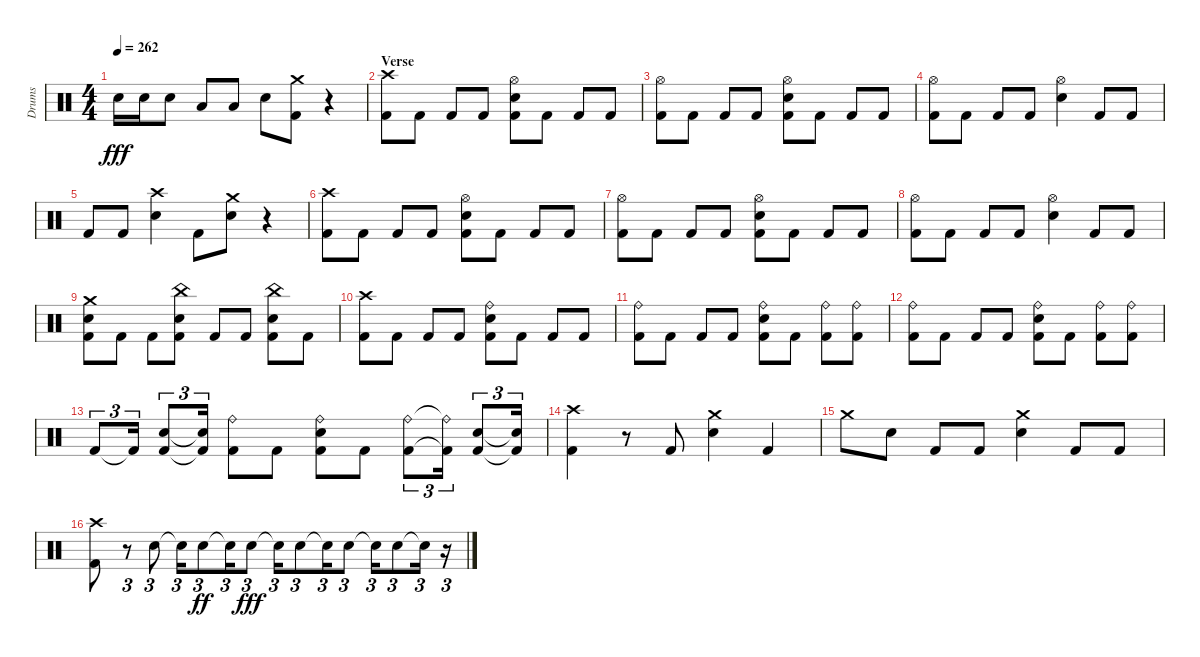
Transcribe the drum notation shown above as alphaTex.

\track ("Drums" "Drums") {instrument percussion}
\staff {score}
\articulation defaults
\ts (4 4)
\tempo 262
\clef neutral
\ks aminor "Snare (hit) 2".16{dy fff} "Snare (hit) 2".16 "Snare (hit) 2".8 "Low Floor Tom (hit)".8 "Low Floor Tom (hit)".8 "Snare (hit) 2".8
("Kick (hit) 2" "Crash medium (hit)").8 r.4 |
\section ("" "Verse")
("Kick (hit) 2" "Crash high (hit)").8 "Kick (hit) 2".8 "Kick (hit) 2".8 "Kick (hit) 2".8 ("Snare (hit) 2" "Kick (hit) 2" "Hi-Hat (open)").8 "Kick (hit) 2".8 "Kick (hit) 2".8 "Kick (hit) 2".8 |
("Kick (hit) 2" "Hi-Hat (open)").8 "Kick (hit) 2".8 "Kick (hit) 2".8 "Kick (hit) 2".8 ("Kick (hit) 2" "Snare (hit) 2" "Hi-Hat (open)").8 "Kick (hit) 2".8 "Kick (hit) 2".8 "Kick (hit) 2".8 |
("Kick (hit) 2" "Hi-Hat (open)").8 "Kick (hit) 2".8 "Kick (hit) 2".8 "Kick (hit) 2".8 ("Snare (hit) 2" "Hi-Hat (open)").4 "Kick (hit) 2".8 "Kick (hit) 2".8 |
"Kick (hit) 2".8 "Kick (hit) 2".8 ("Snare (hit) 2" "Crash high (hit)").4 "Kick (hit) 2".8 ("Snare (hit) 2" "Crash medium (hit)").8 r.4 |
("Kick (hit) 2" "Crash high (hit)").8 "Kick (hit) 2".8 "Kick (hit) 2".8 "Kick (hit) 2".8 ("Kick (hit) 2" "Snare (hit) 2" "Hi-Hat (open)").8 "Kick (hit) 2".8 "Kick (hit) 2".8 "Kick (hit) 2".8 |
("Kick (hit) 2" "Hi-Hat (open)").8 "Kick (hit) 2".8 "Kick (hit) 2".8 "Kick (hit) 2".8 ("Kick (hit) 2" "Snare (hit) 2" "Hi-Hat (open)").8 "Kick (hit) 2".8 "Kick (hit) 2".8 "Kick (hit) 2".8 |
("Kick (hit) 2" "Hi-Hat (open)").8 "Kick (hit) 2".8 "Kick (hit) 2".8 "Kick (hit) 2".8 ("Snare (hit) 2" "Hi-Hat (open)").4 "Kick (hit) 2".8 "Kick (hit) 2".8 |
("Kick (hit) 2" "Snare (hit) 2" "Crash medium (hit)").8 "Kick (hit) 2".8 "Kick (hit) 2".8 ("Kick (hit) 2" "Snare (hit) 2" "China (hit)").8 "Kick (hit) 2".8 "Kick (hit) 2".8 ("Snare (hit) 2" "Kick (hit) 2" "China (hit)").8 "Kick (hit) 2".8 |
("Kick (hit) 2" "Crash high (hit)").8 "Kick (hit) 2".8 "Kick (hit) 2".8 "Kick (hit) 2".8 ("Snare (hit) 2" "Kick (hit) 2" "Ride (bell)").8 "Kick (hit) 2".8 "Kick (hit) 2".8 "Kick (hit) 2".8 |
("Kick (hit) 2" "Ride (bell)").8 "Kick (hit) 2".8 "Kick (hit) 2".8 "Kick (hit) 2".8 ("Kick (hit) 2" "Snare (hit) 2" "Ride (bell)").8 "Kick (hit) 2".8 ("Kick (hit) 2" "Ride (bell)").8 ("Kick (hit) 2" "Ride (bell)").8 |
("Kick (hit) 2" "Ride (bell)").8 "Kick (hit) 2".8 "Kick (hit) 2".8 "Kick (hit) 2".8 ("Kick (hit) 2" "Snare (hit) 2" "Ride (bell)").8 "Kick (hit) 2".8 ("Kick (hit) 2" "Ride (bell)").8 ("Kick (hit) 2" "Ride (bell)").8 |
"Kick (hit) 2".8{tu (3 2)} "Kick (hit) 2"{t}.16{tu (3 2)} ("Snare (hit) 2" "Kick (hit) 2").8{tu (3 2)} ("Snare (hit) 2"{t} "Kick (hit) 2"{t}).16{tu (3 2)} ("Kick (hit) 2" "Ride (bell)").8 "Kick (hit) 2".8 ("Kick (hit) 2" "Snare (hit) 2" "Ride (bell)").8 "Kick (hit) 2".8 ("Kick (hit) 2" "Ride (bell)").8{tu (3 2)} ("Kick (hit) 2"{t} "Ride (bell)"{t}).16{tu (3 2)} ("Snare (hit) 2" "Kick (hit) 2").8{tu (3 2)} ("Snare (hit) 2"{t} "Kick (hit) 2"{t}).16{tu (3 2)} |
("Kick (hit) 2" "Crash high (hit)").4 r.8 "Kick (hit) 2".8 ("Snare (hit) 2" "Crash medium (hit)").4 "Kick (hit) 2".4 |
"Crash medium (hit)".8 "Snare (hit) 2".8 "Kick (hit) 2".8 "Kick (hit) 2".8 ("Snare (hit) 2" "Crash medium (hit)").4 "Kick (hit) 2".8 "Kick (hit) 2".8 |
("Kick (hit) 2" "Crash high (hit)").8 r.8{tu (3 2)} "Snare (hit) 2".8{tu (3 2)} "Snare (hit) 2"{t}.16{tu (3 2)} "Snare (hit) 2".8{tu (3 2) dy ff} "Snare (hit) 2"{t}.16{tu (3 2)} "Snare (hit) 2".8{tu (3 2) dy fff} "Snare (hit) 2"{t}.16{tu (3 2)} "Snare (hit) 2".8{tu (3 2)} "Snare (hit) 2"{t}.16{tu (3 2)} "Snare (hit) 2".8{tu (3 2)} "Snare (hit) 2"{t}.16{tu (3 2)} "Snare (hit) 2".8{tu (3 2)} "Snare (hit) 2"{t}.16{tu (3 2)} r.16{tu (3 2)}
